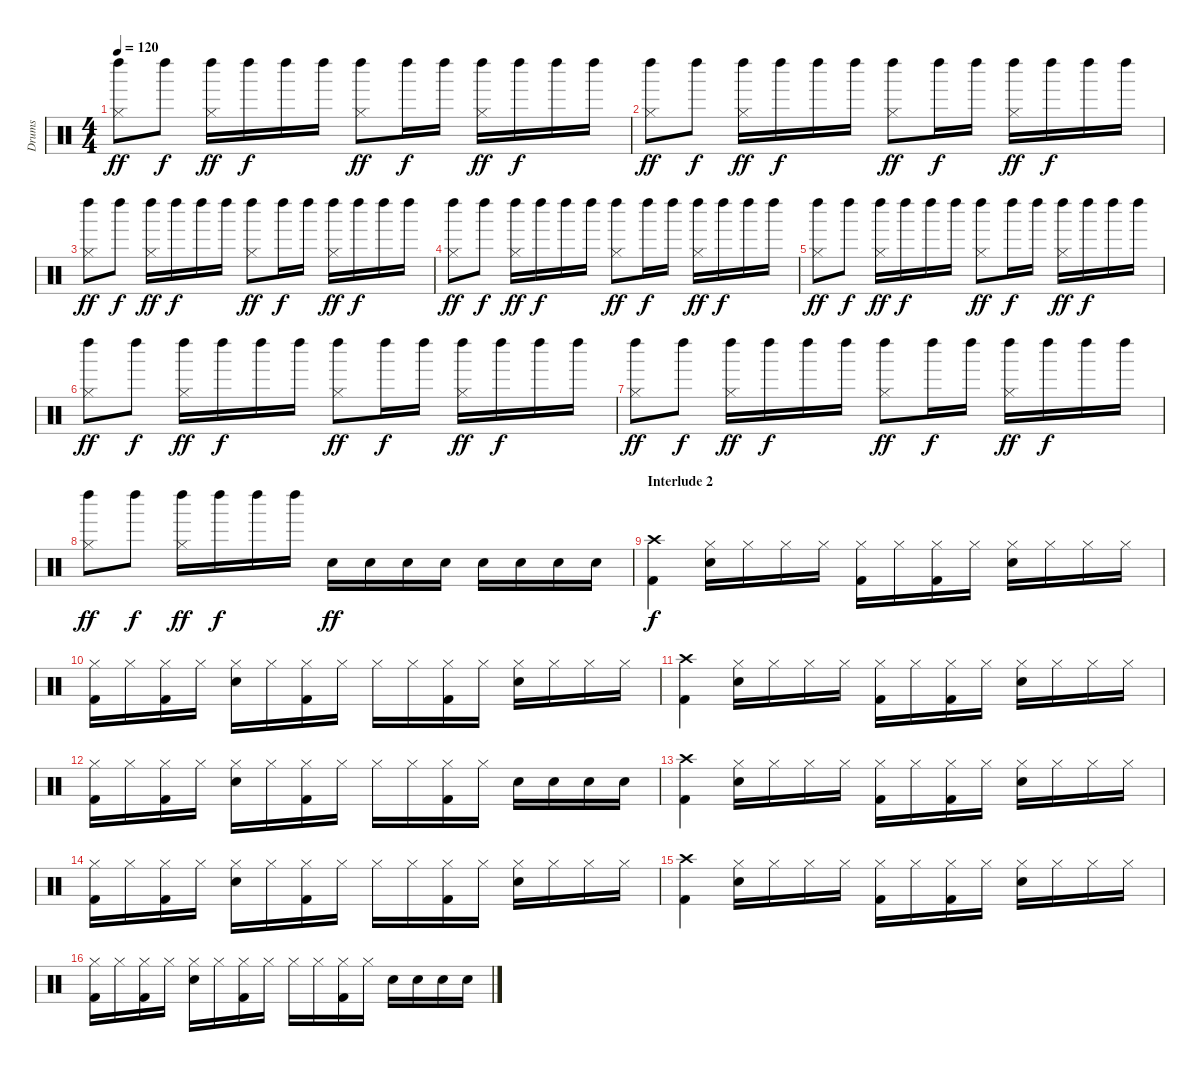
\track ("Drums" "Drums") {instrument percussion}
\staff {score}
\articulation defaults
\ts (4 4)
\tempo 120
\clef neutral
\ks c
("Hi-Hat (closed)" "Left Maraca (hit)").8{dy ff} "Left Maraca (hit)".8{dy f} ("Hi-Hat (closed)" "Left Maraca (hit)").16{dy ff} "Left Maraca (hit)".16{dy f} "Left Maraca (hit)".16 "Left Maraca (hit)".16 ("Hi-Hat (closed)" "Left Maraca (hit)").8{dy ff} "Left Maraca (hit)".16{dy f} "Left Maraca (hit)".16 ("Hi-Hat (closed)" "Left Maraca (hit)").16{dy ff} "Left Maraca (hit)".16{dy f} "Left Maraca (hit)".16 "Left Maraca (hit)".16 |
("Hi-Hat (closed)" "Left Maraca (hit)").8{dy ff} "Left Maraca (hit)".8{dy f} ("Hi-Hat (closed)" "Left Maraca (hit)").16{dy ff} "Left Maraca (hit)".16{dy f} "Left Maraca (hit)".16 "Left Maraca (hit)".16 ("Hi-Hat (closed)" "Left Maraca (hit)").8{dy ff} "Left Maraca (hit)".16{dy f} "Left Maraca (hit)".16 ("Hi-Hat (closed)" "Left Maraca (hit)").16{dy ff} "Left Maraca (hit)".16{dy f} "Left Maraca (hit)".16 "Left Maraca (hit)".16 |
("Hi-Hat (closed)" "Left Maraca (hit)").8{dy ff} "Left Maraca (hit)".8{dy f} ("Hi-Hat (closed)" "Left Maraca (hit)").16{dy ff} "Left Maraca (hit)".16{dy f} "Left Maraca (hit)".16 "Left Maraca (hit)".16 ("Hi-Hat (closed)" "Left Maraca (hit)").8{dy ff} "Left Maraca (hit)".16{dy f} "Left Maraca (hit)".16 ("Hi-Hat (closed)" "Left Maraca (hit)").16{dy ff} "Left Maraca (hit)".16{dy f} "Left Maraca (hit)".16 "Left Maraca (hit)".16 |
("Hi-Hat (closed)" "Left Maraca (hit)").8{dy ff} "Left Maraca (hit)".8{dy f} ("Hi-Hat (closed)" "Left Maraca (hit)").16{dy ff} "Left Maraca (hit)".16{dy f} "Left Maraca (hit)".16 "Left Maraca (hit)".16 ("Hi-Hat (closed)" "Left Maraca (hit)").8{dy ff} "Left Maraca (hit)".16{dy f} "Left Maraca (hit)".16 ("Hi-Hat (closed)" "Left Maraca (hit)").16{dy ff} "Left Maraca (hit)".16{dy f} "Left Maraca (hit)".16 "Left Maraca (hit)".16 |
("Hi-Hat (closed)" "Left Maraca (hit)").8{dy ff} "Left Maraca (hit)".8{dy f} ("Hi-Hat (closed)" "Left Maraca (hit)").16{dy ff} "Left Maraca (hit)".16{dy f} "Left Maraca (hit)".16 "Left Maraca (hit)".16 ("Hi-Hat (closed)" "Left Maraca (hit)").8{dy ff} "Left Maraca (hit)".16{dy f} "Left Maraca (hit)".16 ("Hi-Hat (closed)" "Left Maraca (hit)").16{dy ff} "Left Maraca (hit)".16{dy f} "Left Maraca (hit)".16 "Left Maraca (hit)".16 |
("Hi-Hat (closed)" "Left Maraca (hit)").8{dy ff} "Left Maraca (hit)".8{dy f} ("Hi-Hat (closed)" "Left Maraca (hit)").16{dy ff} "Left Maraca (hit)".16{dy f} "Left Maraca (hit)".16 "Left Maraca (hit)".16 ("Hi-Hat (closed)" "Left Maraca (hit)").8{dy ff} "Left Maraca (hit)".16{dy f} "Left Maraca (hit)".16 ("Hi-Hat (closed)" "Left Maraca (hit)").16{dy ff} "Left Maraca (hit)".16{dy f} "Left Maraca (hit)".16 "Left Maraca (hit)".16 |
("Hi-Hat (closed)" "Left Maraca (hit)").8{dy ff} "Left Maraca (hit)".8{dy f} ("Hi-Hat (closed)" "Left Maraca (hit)").16{dy ff} "Left Maraca (hit)".16{dy f} "Left Maraca (hit)".16 "Left Maraca (hit)".16 ("Hi-Hat (closed)" "Left Maraca (hit)").8{dy ff} "Left Maraca (hit)".16{dy f} "Left Maraca (hit)".16 ("Hi-Hat (closed)" "Left Maraca (hit)").16{dy ff} "Left Maraca (hit)".16{dy f} "Left Maraca (hit)".16 "Left Maraca (hit)".16 |
("Hi-Hat (closed)" "Left Maraca (hit)").8{dy ff} "Left Maraca (hit)".8{dy f} ("Hi-Hat (closed)" "Left Maraca (hit)").16{dy ff} "Left Maraca (hit)".16{dy f} "Left Maraca (hit)".16 "Left Maraca (hit)".16 "Electric Snare (hit)".16{dy ff} "Electric Snare (hit)".16 "Electric Snare (hit)".16 "Electric Snare (hit)".16 "Electric Snare (hit)".16 "Electric Snare (hit)".16 "Electric Snare (hit)".16 "Electric Snare (hit)".16 |
\section ("" "Interlude 2")
("Crash high (hit)" "Kick (hit) 2").4{dy f} ("Hi-Hat (closed)" "Electric Snare (hit)").16 "Hi-Hat (closed)".16 "Hi-Hat (closed)".16 "Hi-Hat (closed)".16 ("Hi-Hat (closed)" "Kick (hit) 2").16 "Hi-Hat (closed)".16 ("Hi-Hat (closed)" "Kick (hit) 2").16 "Hi-Hat (closed)".16 ("Hi-Hat (closed)" "Electric Snare (hit)").16 "Hi-Hat (closed)".16 "Hi-Hat (closed)".16 "Hi-Hat (closed)".16 |
("Hi-Hat (closed)" "Kick (hit) 2").16 "Hi-Hat (closed)".16 ("Hi-Hat (closed)" "Kick (hit) 2").16 "Hi-Hat (closed)".16 ("Hi-Hat (closed)" "Electric Snare (hit)").16 "Hi-Hat (closed)".16 ("Hi-Hat (closed)" "Kick (hit) 2").16 "Hi-Hat (closed)".16 "Hi-Hat (closed)".16 "Hi-Hat (closed)".16 ("Hi-Hat (closed)" "Kick (hit) 2").16 "Hi-Hat (closed)".16 ("Hi-Hat (closed)" "Electric Snare (hit)").16 "Hi-Hat (closed)".16 "Hi-Hat (closed)".16 "Hi-Hat (closed)".16 |
("Crash high (hit)" "Kick (hit) 2").4 ("Hi-Hat (closed)" "Electric Snare (hit)").16 "Hi-Hat (closed)".16 "Hi-Hat (closed)".16 "Hi-Hat (closed)".16 ("Hi-Hat (closed)" "Kick (hit) 2").16 "Hi-Hat (closed)".16 ("Hi-Hat (closed)" "Kick (hit) 2").16 "Hi-Hat (closed)".16 ("Hi-Hat (closed)" "Electric Snare (hit)").16 "Hi-Hat (closed)".16 "Hi-Hat (closed)".16 "Hi-Hat (closed)".16 |
("Hi-Hat (closed)" "Kick (hit) 2").16 "Hi-Hat (closed)".16 ("Hi-Hat (closed)" "Kick (hit) 2").16 "Hi-Hat (closed)".16 ("Hi-Hat (closed)" "Electric Snare (hit)").16 "Hi-Hat (closed)".16 ("Hi-Hat (closed)" "Kick (hit) 2").16 "Hi-Hat (closed)".16 "Hi-Hat (closed)".16 "Hi-Hat (closed)".16 ("Hi-Hat (closed)" "Kick (hit) 2").16 "Hi-Hat (closed)".16 "Electric Snare (hit)".16 "Electric Snare (hit)".16 "Electric Snare (hit)".16 "Electric Snare (hit)".16 |
("Crash high (hit)" "Kick (hit) 2").4 ("Hi-Hat (closed)" "Electric Snare (hit)").16 "Hi-Hat (closed)".16 "Hi-Hat (closed)".16 "Hi-Hat (closed)".16 ("Hi-Hat (closed)" "Kick (hit) 2").16 "Hi-Hat (closed)".16 ("Hi-Hat (closed)" "Kick (hit) 2").16 "Hi-Hat (closed)".16 ("Hi-Hat (closed)" "Electric Snare (hit)").16 "Hi-Hat (closed)".16 "Hi-Hat (closed)".16 "Hi-Hat (closed)".16 |
("Hi-Hat (closed)" "Kick (hit) 2").16 "Hi-Hat (closed)".16 ("Hi-Hat (closed)" "Kick (hit) 2").16 "Hi-Hat (closed)".16 ("Hi-Hat (closed)" "Electric Snare (hit)").16 "Hi-Hat (closed)".16 ("Hi-Hat (closed)" "Kick (hit) 2").16 "Hi-Hat (closed)".16 "Hi-Hat (closed)".16 "Hi-Hat (closed)".16 ("Hi-Hat (closed)" "Kick (hit) 2").16 "Hi-Hat (closed)".16 ("Hi-Hat (closed)" "Electric Snare (hit)").16 "Hi-Hat (closed)".16 "Hi-Hat (closed)".16 "Hi-Hat (closed)".16 |
("Crash high (hit)" "Kick (hit) 2").4 ("Hi-Hat (closed)" "Electric Snare (hit)").16 "Hi-Hat (closed)".16 "Hi-Hat (closed)".16 "Hi-Hat (closed)".16 ("Hi-Hat (closed)" "Kick (hit) 2").16 "Hi-Hat (closed)".16 ("Hi-Hat (closed)" "Kick (hit) 2").16 "Hi-Hat (closed)".16 ("Hi-Hat (closed)" "Electric Snare (hit)").16 "Hi-Hat (closed)".16 "Hi-Hat (closed)".16 "Hi-Hat (closed)".16 |
("Hi-Hat (closed)" "Kick (hit) 2").16 "Hi-Hat (closed)".16 ("Hi-Hat (closed)" "Kick (hit) 2").16 "Hi-Hat (closed)".16 ("Hi-Hat (closed)" "Electric Snare (hit)").16 "Hi-Hat (closed)".16 ("Hi-Hat (closed)" "Kick (hit) 2").16 "Hi-Hat (closed)".16 "Hi-Hat (closed)".16 "Hi-Hat (closed)".16 ("Hi-Hat (closed)" "Kick (hit) 2").16 "Hi-Hat (closed)".16 "Electric Snare (hit)".16 "Electric Snare (hit)".16 "Electric Snare (hit)".16 "Electric Snare (hit)".16
